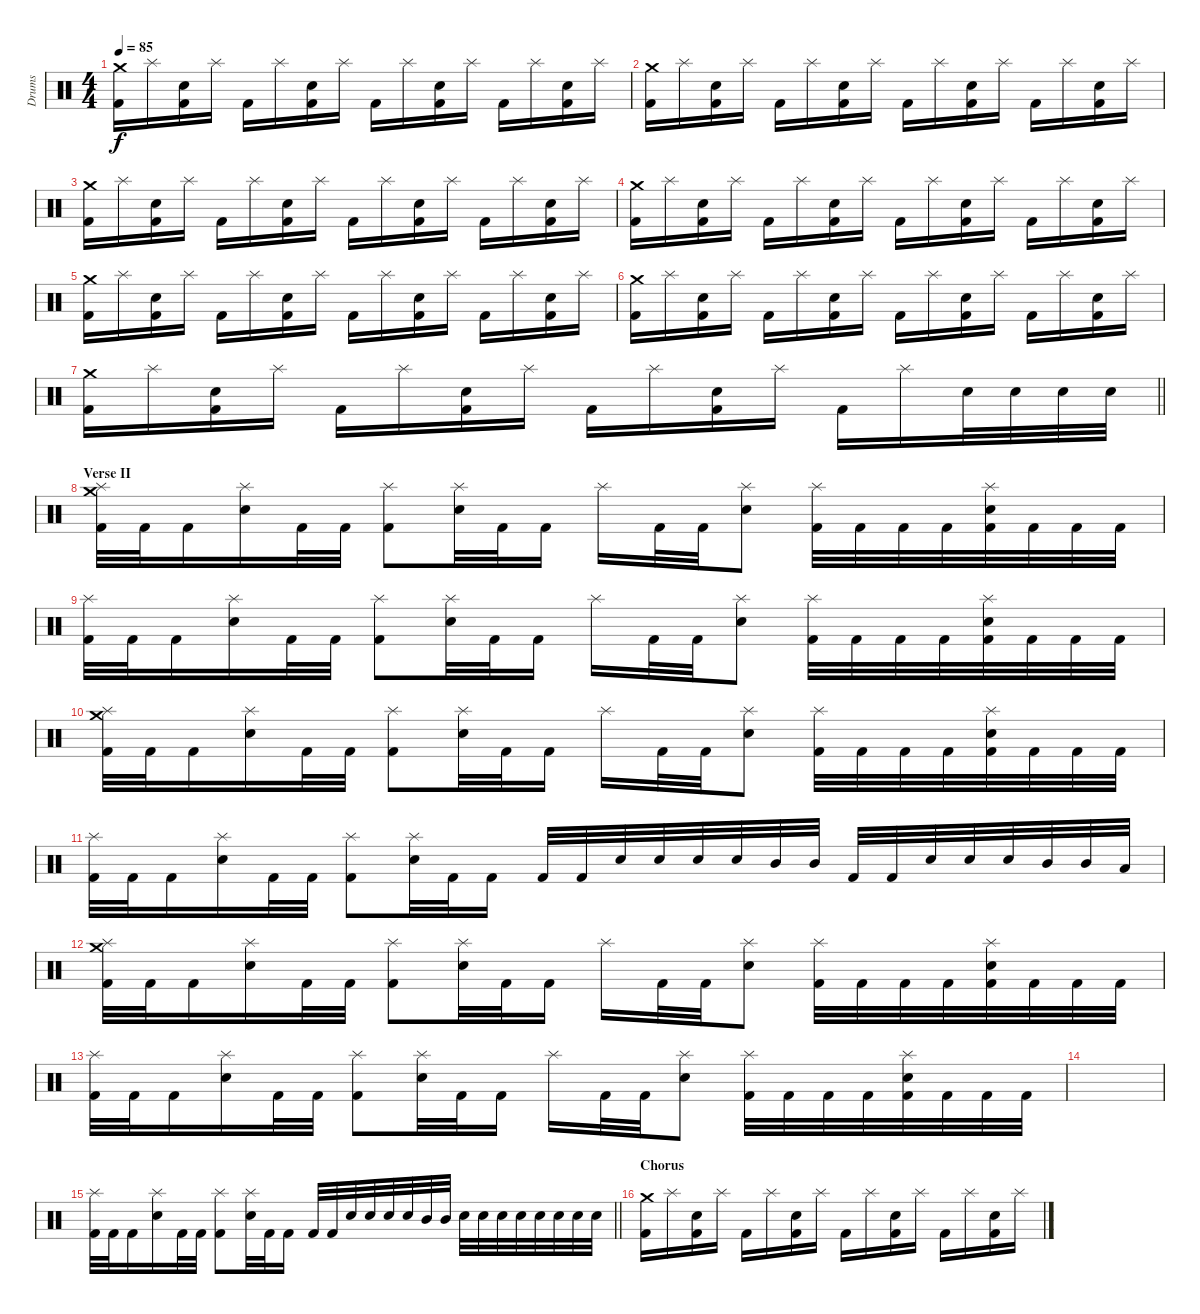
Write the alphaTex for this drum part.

\track ("Drums" "Drums") {instrument percussion}
\staff {score}
\articulation defaults
\ts (4 4)
\tempo 85
\clef neutral
\ks c
("Crash medium (hit)" "Kick (hit) 2").16{dy f} "Splash (hit)".16 ("Electric Snare (hit)" "Kick (hit) 2").16 "Splash (hit)".16 "Kick (hit) 2".16 "Splash (hit)".16 ("Electric Snare (hit)" "Kick (hit) 2").16 "Splash (hit)".16 "Kick (hit) 2".16 "Splash (hit)".16 ("Electric Snare (hit)" "Kick (hit) 2").16 "Splash (hit)".16 "Kick (hit) 2".16 "Splash (hit)".16 ("Electric Snare (hit)" "Kick (hit) 2").16 "Splash (hit)".16 |
("Crash medium (hit)" "Kick (hit) 2").16 "Splash (hit)".16 ("Electric Snare (hit)" "Kick (hit) 2").16 "Splash (hit)".16 "Kick (hit) 2".16 "Splash (hit)".16 ("Electric Snare (hit)" "Kick (hit) 2").16 "Splash (hit)".16 "Kick (hit) 2".16 "Splash (hit)".16 ("Electric Snare (hit)" "Kick (hit) 2").16 "Splash (hit)".16 "Kick (hit) 2".16 "Splash (hit)".16 ("Electric Snare (hit)" "Kick (hit) 2").16 "Splash (hit)".16 |
("Crash medium (hit)" "Kick (hit) 2").16 "Splash (hit)".16 ("Electric Snare (hit)" "Kick (hit) 2").16 "Splash (hit)".16 "Kick (hit) 2".16 "Splash (hit)".16 ("Electric Snare (hit)" "Kick (hit) 2").16 "Splash (hit)".16 "Kick (hit) 2".16 "Splash (hit)".16 ("Electric Snare (hit)" "Kick (hit) 2").16 "Splash (hit)".16 "Kick (hit) 2".16 "Splash (hit)".16 ("Electric Snare (hit)" "Kick (hit) 2").16 "Splash (hit)".16 |
("Crash medium (hit)" "Kick (hit) 2").16 "Splash (hit)".16 ("Electric Snare (hit)" "Kick (hit) 2").16 "Splash (hit)".16 "Kick (hit) 2".16 "Splash (hit)".16 ("Electric Snare (hit)" "Kick (hit) 2").16 "Splash (hit)".16 "Kick (hit) 2".16 "Splash (hit)".16 ("Electric Snare (hit)" "Kick (hit) 2").16 "Splash (hit)".16 "Kick (hit) 2".16 "Splash (hit)".16 ("Electric Snare (hit)" "Kick (hit) 2").16 "Splash (hit)".16 |
("Crash medium (hit)" "Kick (hit) 2").16 "Splash (hit)".16 ("Electric Snare (hit)" "Kick (hit) 2").16 "Splash (hit)".16 "Kick (hit) 2".16 "Splash (hit)".16 ("Electric Snare (hit)" "Kick (hit) 2").16 "Splash (hit)".16 "Kick (hit) 2".16 "Splash (hit)".16 ("Electric Snare (hit)" "Kick (hit) 2").16 "Splash (hit)".16 "Kick (hit) 2".16 "Splash (hit)".16 ("Electric Snare (hit)" "Kick (hit) 2").16 "Splash (hit)".16 |
("Crash medium (hit)" "Kick (hit) 2").16 "Splash (hit)".16 ("Electric Snare (hit)" "Kick (hit) 2").16 "Splash (hit)".16 "Kick (hit) 2".16 "Splash (hit)".16 ("Electric Snare (hit)" "Kick (hit) 2").16 "Splash (hit)".16 "Kick (hit) 2".16 "Splash (hit)".16 ("Electric Snare (hit)" "Kick (hit) 2").16 "Splash (hit)".16 "Kick (hit) 2".16 "Splash (hit)".16 ("Electric Snare (hit)" "Kick (hit) 2").16 "Splash (hit)".16 |
\barLineRight lightlight
("Crash medium (hit)" "Kick (hit) 2").16 "Splash (hit)".16 ("Electric Snare (hit)" "Kick (hit) 2").16 "Splash (hit)".16 "Kick (hit) 2".16 "Splash (hit)".16 ("Electric Snare (hit)" "Kick (hit) 2").16 "Splash (hit)".16 "Kick (hit) 2".16 "Splash (hit)".16 ("Electric Snare (hit)" "Kick (hit) 2").16 "Splash (hit)".16 "Kick (hit) 2".16 "Splash (hit)".16 "Electric Snare (hit)".32 "Electric Snare (hit)".32 "Electric Snare (hit)".32 "Electric Snare (hit)".32 |
\section ("" "Verse II")
("Crash medium (hit)" "Splash (hit)" "Kick (hit) 2").32 "Kick (hit) 2".32 "Kick (hit) 2".16 ("Splash (hit)" "Electric Snare (hit)").16 "Kick (hit) 2".32 "Kick (hit) 2".32 ("Splash (hit)" "Kick (hit) 2").8 ("Splash (hit)" "Electric Snare (hit)").32 "Kick (hit) 2".32 "Kick (hit) 2".16 "Splash (hit)".16 "Kick (hit) 2".32 "Kick (hit) 2".32 ("Splash (hit)" "Electric Snare (hit)").8 ("Splash (hit)" "Kick (hit) 2").32 "Kick (hit) 2".32 "Kick (hit) 2".32 "Kick (hit) 2".32 ("Splash (hit)" "Electric Snare (hit)" "Kick (hit) 2").32 "Kick (hit) 2".32 "Kick (hit) 2".32 "Kick (hit) 2".32 |
("Splash (hit)" "Kick (hit) 2").32 "Kick (hit) 2".32 "Kick (hit) 2".16 ("Splash (hit)" "Electric Snare (hit)").16 "Kick (hit) 2".32 "Kick (hit) 2".32 ("Splash (hit)" "Kick (hit) 2").8 ("Splash (hit)" "Electric Snare (hit)").32 "Kick (hit) 2".32 "Kick (hit) 2".16 "Splash (hit)".16 "Kick (hit) 2".32 "Kick (hit) 2".32 ("Splash (hit)" "Electric Snare (hit)").8 ("Splash (hit)" "Kick (hit) 2").32 "Kick (hit) 2".32 "Kick (hit) 2".32 "Kick (hit) 2".32 ("Splash (hit)" "Electric Snare (hit)" "Kick (hit) 2").32 "Kick (hit) 2".32 "Kick (hit) 2".32 "Kick (hit) 2".32 |
("Crash medium (hit)" "Splash (hit)" "Kick (hit) 2").32 "Kick (hit) 2".32 "Kick (hit) 2".16 ("Splash (hit)" "Electric Snare (hit)").16 "Kick (hit) 2".32 "Kick (hit) 2".32 ("Splash (hit)" "Kick (hit) 2").8 ("Splash (hit)" "Electric Snare (hit)").32 "Kick (hit) 2".32 "Kick (hit) 2".16 "Splash (hit)".16 "Kick (hit) 2".32 "Kick (hit) 2".32 ("Splash (hit)" "Electric Snare (hit)").8 ("Splash (hit)" "Kick (hit) 2").32 "Kick (hit) 2".32 "Kick (hit) 2".32 "Kick (hit) 2".32 ("Splash (hit)" "Electric Snare (hit)" "Kick (hit) 2").32 "Kick (hit) 2".32 "Kick (hit) 2".32 "Kick (hit) 2".32 |
("Splash (hit)" "Kick (hit) 2").32 "Kick (hit) 2".32 "Kick (hit) 2".16 ("Splash (hit)" "Electric Snare (hit)").16 "Kick (hit) 2".32 "Kick (hit) 2".32 ("Splash (hit)" "Kick (hit) 2").8 ("Splash (hit)" "Electric Snare (hit)").32 "Kick (hit) 2".32 "Kick (hit) 2".16 "Kick (hit) 2".32 "Kick (hit) 2".32 "Electric Snare (hit)".32 "Electric Snare (hit)".32 "Electric Snare (hit)".32 "Electric Snare (hit)".32 "Mid Tom (hit)".32 "Mid Tom (hit)".32 "Kick (hit) 2".32 "Kick (hit) 2".32 "Electric Snare (hit)".32 "Electric Snare (hit)".32 "Electric Snare (hit)".32 "Mid Tom (hit)".32 "Mid Tom (hit)".32 "Low Tom (hit)".32 |
("Crash medium (hit)" "Splash (hit)" "Kick (hit) 2").32 "Kick (hit) 2".32 "Kick (hit) 2".16 ("Splash (hit)" "Electric Snare (hit)").16 "Kick (hit) 2".32 "Kick (hit) 2".32 ("Splash (hit)" "Kick (hit) 2").8 ("Splash (hit)" "Electric Snare (hit)").32 "Kick (hit) 2".32 "Kick (hit) 2".16 "Splash (hit)".16 "Kick (hit) 2".32 "Kick (hit) 2".32 ("Splash (hit)" "Electric Snare (hit)").8 ("Splash (hit)" "Kick (hit) 2").32 "Kick (hit) 2".32 "Kick (hit) 2".32 "Kick (hit) 2".32 ("Splash (hit)" "Electric Snare (hit)" "Kick (hit) 2").32 "Kick (hit) 2".32 "Kick (hit) 2".32 "Kick (hit) 2".32 |
("Splash (hit)" "Kick (hit) 2").32 "Kick (hit) 2".32 "Kick (hit) 2".16 ("Splash (hit)" "Electric Snare (hit)").16 "Kick (hit) 2".32 "Kick (hit) 2".32 ("Splash (hit)" "Kick (hit) 2").8 ("Splash (hit)" "Electric Snare (hit)").32 "Kick (hit) 2".32 "Kick (hit) 2".16 "Splash (hit)".16 "Kick (hit) 2".32 "Kick (hit) 2".32 ("Splash (hit)" "Electric Snare (hit)").8 ("Splash (hit)" "Kick (hit) 2").32 "Kick (hit) 2".32 "Kick (hit) 2".32 "Kick (hit) 2".32 ("Splash (hit)" "Electric Snare (hit)" "Kick (hit) 2").32 "Kick (hit) 2".32 "Kick (hit) 2".32 "Kick (hit) 2".32 |
|
\barLineRight lightlight
("Splash (hit)" "Kick (hit) 2").32 "Kick (hit) 2".32 "Kick (hit) 2".16 ("Splash (hit)" "Electric Snare (hit)").16 "Kick (hit) 2".32 "Kick (hit) 2".32 ("Splash (hit)" "Kick (hit) 2").8 ("Splash (hit)" "Electric Snare (hit)").32 "Kick (hit) 2".32 "Kick (hit) 2".16 "Kick (hit) 2".32 "Kick (hit) 2".32 "Electric Snare (hit)".32 "Electric Snare (hit)".32 "Electric Snare (hit)".32 "Electric Snare (hit)".32 "Mid Tom (hit)".32 "Mid Tom (hit)".32 "Electric Snare (hit)".32 "Electric Snare (hit)".32 "Electric Snare (hit)".32 "Electric Snare (hit)".32 "Electric Snare (hit)".32 "Electric Snare (hit)".32 "Electric Snare (hit)".32 "Electric Snare (hit)".32 |
\section ("" "Chorus")
("Crash medium (hit)" "Kick (hit) 2").16 "Splash (hit)".16 ("Electric Snare (hit)" "Kick (hit) 2").16 "Splash (hit)".16 "Kick (hit) 2".16 "Splash (hit)".16 ("Electric Snare (hit)" "Kick (hit) 2").16 "Splash (hit)".16 "Kick (hit) 2".16 "Splash (hit)".16 ("Electric Snare (hit)" "Kick (hit) 2").16 "Splash (hit)".16 "Kick (hit) 2".16 "Splash (hit)".16 ("Electric Snare (hit)" "Kick (hit) 2").16 "Splash (hit)".16
